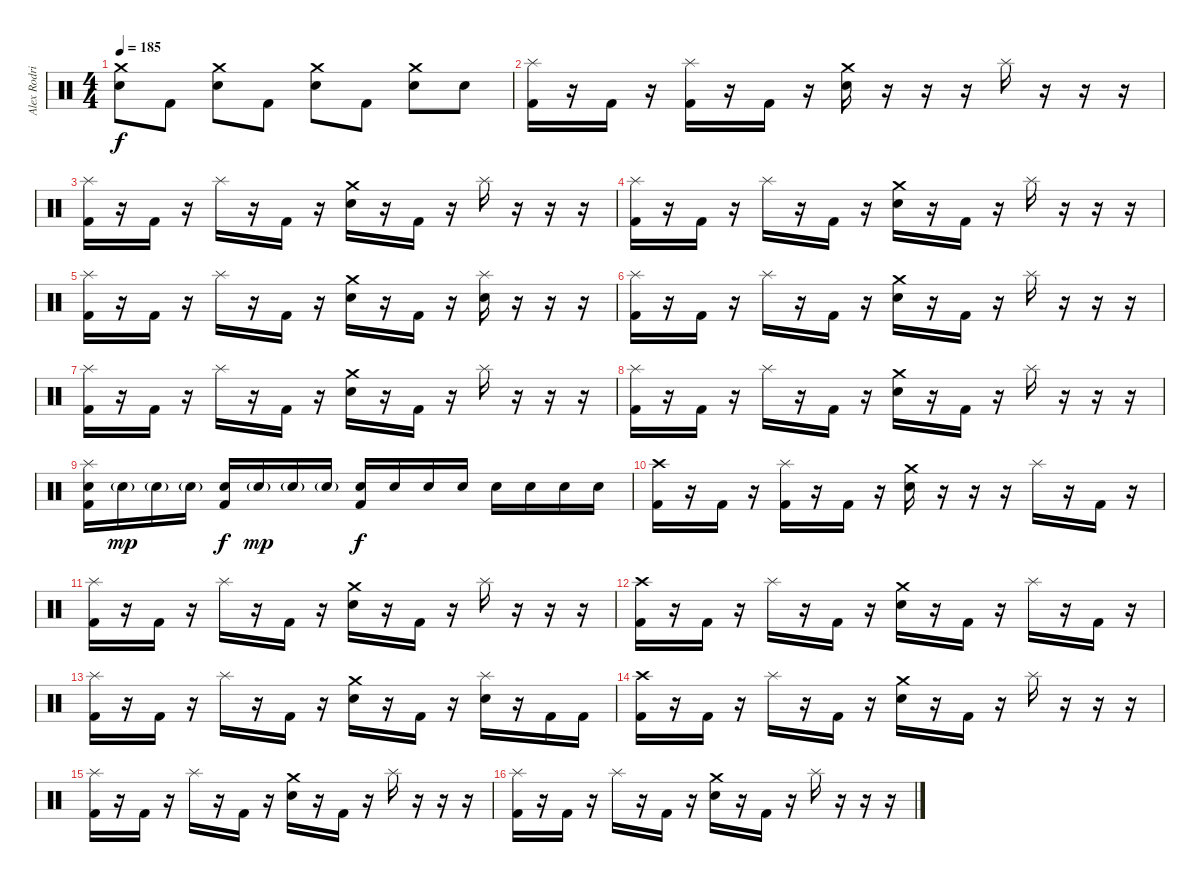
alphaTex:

\track ("Alex Rodriguez" "Alex Rodri") {instrument percussion}
\staff {score}
\articulation defaults
\ts (4 4)
\tempo 185
\clef neutral
\ks c
("Crash medium (hit)" "Electric Snare (hit)").8{dy f} "Kick (hit) 2".8 ("Crash medium (hit)" "Electric Snare (hit)").8 "Kick (hit) 2".8 ("Crash medium (hit)" "Electric Snare (hit)").8 "Kick (hit) 2".8 ("Crash medium (hit)" "Electric Snare (hit)").8 "Electric Snare (hit)".8 |
("Splash (hit)" "Kick (hit) 2").16 r.16 "Kick (hit) 2".16 r.16 ("Splash (hit)" "Kick (hit) 2").16 r.16 "Kick (hit) 2".16 r.16 ("Crash medium (hit)" "Electric Snare (hit)").16 r.16 r.16 r.16 "Splash (hit)".16 r.16 r.16 r.16 |
("Splash (hit)" "Kick (hit) 2").16 r.16 "Kick (hit) 2".16 r.16 "Splash (hit)".16 r.16 "Kick (hit) 2".16 r.16 ("Crash medium (hit)" "Electric Snare (hit)").16 r.16 "Kick (hit) 2".16 r.16 "Splash (hit)".16 r.16 r.16 r.16 |
("Splash (hit)" "Kick (hit) 2").16 r.16 "Kick (hit) 2".16 r.16 "Splash (hit)".16 r.16 "Kick (hit) 2".16 r.16 ("Crash medium (hit)" "Electric Snare (hit)").16 r.16 "Kick (hit) 2".16 r.16 "Splash (hit)".16 r.16 r.16 r.16 |
("Splash (hit)" "Kick (hit) 2").16 r.16 "Kick (hit) 2".16 r.16 "Splash (hit)".16 r.16 "Kick (hit) 2".16 r.16 ("Crash medium (hit)" "Electric Snare (hit)").16 r.16 "Kick (hit) 2".16 r.16 ("Splash (hit)" "Electric Snare (hit)").16 r.16 r.16 r.16 |
("Splash (hit)" "Kick (hit) 2").16 r.16 "Kick (hit) 2".16 r.16 "Splash (hit)".16 r.16 "Kick (hit) 2".16 r.16 ("Crash medium (hit)" "Electric Snare (hit)").16 r.16 "Kick (hit) 2".16 r.16 "Splash (hit)".16 r.16 r.16 r.16 |
("Splash (hit)" "Kick (hit) 2").16 r.16 "Kick (hit) 2".16 r.16 "Splash (hit)".16 r.16 "Kick (hit) 2".16 r.16 ("Crash medium (hit)" "Electric Snare (hit)").16 r.16 "Kick (hit) 2".16 r.16 "Splash (hit)".16 r.16 r.16 r.16 |
("Splash (hit)" "Kick (hit) 2").16 r.16 "Kick (hit) 2".16 r.16 "Splash (hit)".16 r.16 "Kick (hit) 2".16 r.16 ("Crash medium (hit)" "Electric Snare (hit)").16 r.16 "Kick (hit) 2".16 r.16 "Splash (hit)".16 r.16 r.16 r.16 |
("Splash (hit)" "Electric Snare (hit)" "Kick (hit) 2").16 "Electric Snare (hit)"{g}.16{dy mp} "Electric Snare (hit)"{g}.16 "Electric Snare (hit)"{g}.16 ("Electric Snare (hit)" "Kick (hit) 2").16{dy f} "Electric Snare (hit)"{g}.16{dy mp} "Electric Snare (hit)"{g}.16 "Electric Snare (hit)"{g}.16 ("Electric Snare (hit)" "Kick (hit) 2").16{dy f} "Electric Snare (hit)".16 "Electric Snare (hit)".16 "Electric Snare (hit)".16 "Electric Snare (hit)".16 "Electric Snare (hit)".16 "Electric Snare (hit)".16 "Electric Snare (hit)".16 |
("Crash high (hit)" "Kick (hit) 2").16 r.16 "Kick (hit) 2".16 r.16 ("Splash (hit)" "Kick (hit) 2").16 r.16 "Kick (hit) 2".16 r.16 ("Crash medium (hit)" "Electric Snare (hit)").16 r.16 r.16 r.16 "Splash (hit)".16 r.16 "Kick (hit) 2".16 r.16 |
("Splash (hit)" "Kick (hit) 2").16 r.16 "Kick (hit) 2".16 r.16 "Splash (hit)".16 r.16 "Kick (hit) 2".16 r.16 ("Crash medium (hit)" "Electric Snare (hit)").16 r.16 "Kick (hit) 2".16 r.16 "Splash (hit)".16 r.16 r.16 r.16 |
("Crash high (hit)" "Kick (hit) 2").16 r.16 "Kick (hit) 2".16 r.16 "Splash (hit)".16 r.16 "Kick (hit) 2".16 r.16 ("Crash medium (hit)" "Electric Snare (hit)").16 r.16 "Kick (hit) 2".16 r.16 "Splash (hit)".16 r.16 "Kick (hit) 2".16 r.16 |
("Splash (hit)" "Kick (hit) 2").16 r.16 "Kick (hit) 2".16 r.16 "Splash (hit)".16 r.16 "Kick (hit) 2".16 r.16 ("Crash medium (hit)" "Electric Snare (hit)").16 r.16 "Kick (hit) 2".16 r.16 ("Splash (hit)" "Electric Snare (hit)").16 r.16 "Kick (hit) 2".16 "Kick (hit) 2".16 |
("Crash high (hit)" "Kick (hit) 2").16 r.16 "Kick (hit) 2".16 r.16 "Splash (hit)".16 r.16 "Kick (hit) 2".16 r.16 ("Crash medium (hit)" "Electric Snare (hit)").16 r.16 "Kick (hit) 2".16 r.16 "Splash (hit)".16 r.16 r.16 r.16 |
("Splash (hit)" "Kick (hit) 2").16 r.16 "Kick (hit) 2".16 r.16 "Splash (hit)".16 r.16 "Kick (hit) 2".16 r.16 ("Crash medium (hit)" "Electric Snare (hit)").16 r.16 "Kick (hit) 2".16 r.16 "Splash (hit)".16 r.16 r.16 r.16 |
("Splash (hit)" "Kick (hit) 2").16 r.16 "Kick (hit) 2".16 r.16 "Splash (hit)".16 r.16 "Kick (hit) 2".16 r.16 ("Crash medium (hit)" "Electric Snare (hit)").16 r.16 "Kick (hit) 2".16 r.16 "Splash (hit)".16 r.16 r.16 r.16
